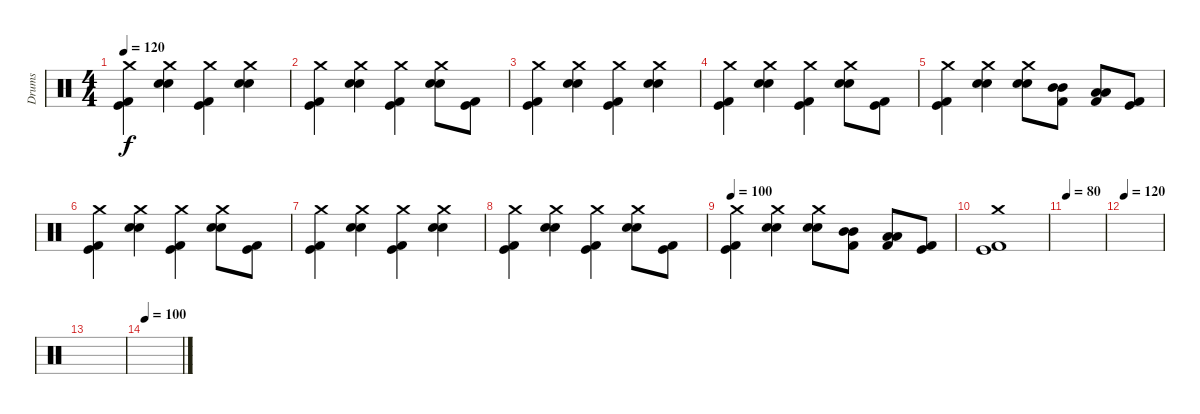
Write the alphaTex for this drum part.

\track ("Drums" "Drums") {instrument percussion}
\staff {score}
\articulation defaults
\ts (4 4)
\tempo 120
\clef neutral
\ks c
("Crash medium (hit)" "Kick (hit)" "Kick (hit) 2").4{dy f} ("Crash medium (hit)" "Electric Snare (hit)" "Electric Snare (hit)").4 ("Crash medium (hit)" "Kick (hit)" "Kick (hit) 2").4 ("Crash medium (hit)" "Electric Snare (hit)" "Electric Snare (hit)").4 |
("Crash medium (hit)" "Kick (hit)" "Kick (hit) 2").4 ("Crash medium (hit)" "Electric Snare (hit)" "Electric Snare (hit)").4 ("Crash medium (hit)" "Kick (hit)" "Kick (hit) 2").4 ("Crash medium (hit)" "Electric Snare (hit)" "Electric Snare (hit)").8 ("Kick (hit)" "Kick (hit) 2").8 |
("Crash medium (hit)" "Kick (hit)" "Kick (hit) 2").4 ("Crash medium (hit)" "Electric Snare (hit)" "Electric Snare (hit)").4 ("Crash medium (hit)" "Kick (hit)" "Kick (hit) 2").4 ("Crash medium (hit)" "Electric Snare (hit)" "Electric Snare (hit)").4 |
("Crash medium (hit)" "Kick (hit)" "Kick (hit) 2").4 ("Crash medium (hit)" "Electric Snare (hit)" "Electric Snare (hit)").4 ("Crash medium (hit)" "Kick (hit)" "Kick (hit) 2").4 ("Crash medium (hit)" "Electric Snare (hit)" "Electric Snare (hit)").8 ("Kick (hit)" "Kick (hit) 2").8 |
("Crash medium (hit)" "Kick (hit)" "Kick (hit) 2").4 ("Crash medium (hit)" "Electric Snare (hit)" "Electric Snare (hit)").4 ("Crash medium (hit)" "Electric Snare (hit)" "Electric Snare (hit)").8 ("Mid Tom (hit)" "Mid Tom (hit)" "Kick (hit) 2").8 ("Low Tom (hit)" "Low Tom (hit)" "Kick (hit) 2").8 ("Kick (hit)" "Kick (hit) 2").8 |
("Crash medium (hit)" "Kick (hit)" "Kick (hit) 2").4 ("Crash medium (hit)" "Electric Snare (hit)" "Electric Snare (hit)").4 ("Crash medium (hit)" "Kick (hit)" "Kick (hit) 2").4 ("Crash medium (hit)" "Electric Snare (hit)" "Electric Snare (hit)").8 ("Kick (hit)" "Kick (hit) 2").8 |
("Crash medium (hit)" "Kick (hit)" "Kick (hit) 2").4 ("Crash medium (hit)" "Electric Snare (hit)" "Electric Snare (hit)").4 ("Crash medium (hit)" "Kick (hit)" "Kick (hit) 2").4 ("Crash medium (hit)" "Electric Snare (hit)" "Electric Snare (hit)").4 |
("Crash medium (hit)" "Kick (hit)" "Kick (hit) 2").4 ("Crash medium (hit)" "Electric Snare (hit)" "Electric Snare (hit)").4 ("Crash medium (hit)" "Kick (hit)" "Kick (hit) 2").4 ("Crash medium (hit)" "Electric Snare (hit)" "Electric Snare (hit)").8 ("Kick (hit)" "Kick (hit) 2").8 |
\tempo 100
("Crash medium (hit)" "Kick (hit)" "Kick (hit) 2").4 ("Crash medium (hit)" "Electric Snare (hit)" "Electric Snare (hit)").4 ("Crash medium (hit)" "Electric Snare (hit)" "Electric Snare (hit)").8 ("Mid Tom (hit)" "Mid Tom (hit)" "Kick (hit) 2").8 ("Low Tom (hit)" "Low Tom (hit)" "Kick (hit) 2").8 ("Kick (hit)" "Kick (hit) 2").8 |
("Crash medium (hit)" "Kick (hit)" "Kick (hit) 2").1 |
\tempo 80
|
\tempo 120
|
|
\tempo 100
